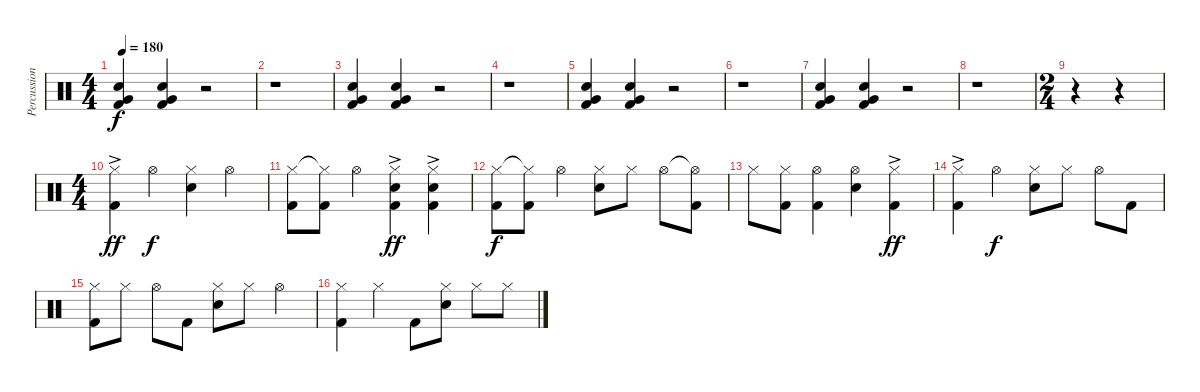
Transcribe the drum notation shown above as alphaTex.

\track ("Percussion" "Percussion") {instrument percussion}
\staff {score}
\articulation defaults
\ts (4 4)
\tempo 180
\clef neutral
\ks c
("Snare (hit) 2" "Very Low Tom (hit)" "Kick (hit) 2").4{dy f} ("Snare (hit) 2" "Very Low Tom (hit)" "Kick (hit) 2").4 r.2 |
r.1 |
("Snare (hit) 2" "Very Low Tom (hit)" "Kick (hit) 2").4 ("Snare (hit) 2" "Very Low Tom (hit)" "Kick (hit) 2").4 r.2 |
r.1 |
("Snare (hit) 2" "Very Low Tom (hit)" "Kick (hit) 2").4 ("Snare (hit) 2" "Very Low Tom (hit)" "Kick (hit) 2").4 r.2 |
r.1 |
("Snare (hit) 2" "Very Low Tom (hit)" "Kick (hit) 2").4 ("Snare (hit) 2" "Very Low Tom (hit)" "Kick (hit) 2").4 r.2 |
r.1 |
\ts (2 4)
r.4 r.4 |
\ts (4 4)
("Hi-Hat (closed)"{ac} "Kick (hit) 2").4{dy ff} "Hi-Hat (open)".4{dy f} ("Hi-Hat (closed)" "Snare (hit) 2").4 "Hi-Hat (open)".4 |
("Hi-Hat (closed)" "Kick (hit) 2").8 ("Hi-Hat (closed)"{t} "Kick (hit) 2").8 "Hi-Hat (open)".4 ("Hi-Hat (closed)"{ac} "Snare (hit) 2" "Kick (hit) 2").4{dy ff} ("Hi-Hat (closed)"{ac} "Snare (hit) 2" "Kick (hit) 2").4 |
("Hi-Hat (closed)" "Kick (hit) 2").8{dy f} ("Hi-Hat (closed)"{t} "Kick (hit) 2").8 "Hi-Hat (open)".4 ("Hi-Hat (closed)" "Snare (hit) 2").8 "Hi-Hat (closed)".8 "Hi-Hat (open)".8 ("Hi-Hat (open)"{t} "Kick (hit) 2").8 |
"Hi-Hat (closed)".8 ("Hi-Hat (closed)" "Kick (hit) 2").8 ("Hi-Hat (open)" "Kick (hit) 2").4 ("Hi-Hat (open)" "Snare (hit) 2").4 ("Hi-Hat (closed)"{ac} "Kick (hit) 2").4{dy ff} |
("Hi-Hat (closed)"{ac} "Kick (hit) 2").4 "Hi-Hat (open)".4{dy f} ("Hi-Hat (closed)" "Snare (hit) 2").8 "Hi-Hat (closed)".8 "Hi-Hat (open)".8 "Kick (hit) 2".8 |
("Hi-Hat (closed)" "Kick (hit) 2").8 "Hi-Hat (closed)".8 "Hi-Hat (open)".8 "Kick (hit) 2".8 ("Hi-Hat (closed)" "Snare (hit) 2").8 "Hi-Hat (closed)".8 "Hi-Hat (open)".4 |
("Hi-Hat (closed)" "Kick (hit) 2").4 "Hi-Hat (closed)".4 "Kick (hit) 2".8 ("Hi-Hat (closed)" "Snare (hit) 2").8 "Hi-Hat (closed)".8 "Hi-Hat (closed)".8
